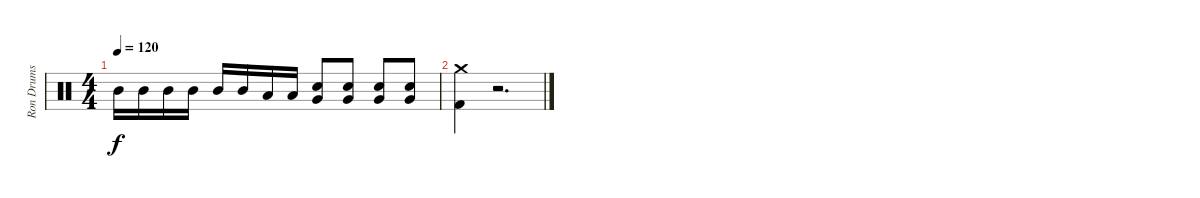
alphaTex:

\track ("Ron Drums and Percussion" "Ron Drums ") {instrument percussion}
\staff {score}
\articulation defaults
\ts (4 4)
\tempo 120
\clef neutral
\ks c "Mid Tom (hit)".16{dy f} "Mid Tom (hit)".16 "Mid Tom (hit)".16 "Mid Tom (hit)".16 "Mid Tom (hit)".16 "Mid Tom (hit)".16 "Low Tom (hit)".16 "Low Tom (hit)".16
("Electric Snare (hit)" "Very Low Tom (hit)").8 ("Electric Snare (hit)" "Very Low Tom (hit)").8 ("Electric Snare (hit)" "Very Low Tom (hit)").8 ("Electric Snare (hit)" "Very Low Tom (hit)").8 |
("Crash medium (hit)" "Kick (hit) 2").4 r.2{d}
